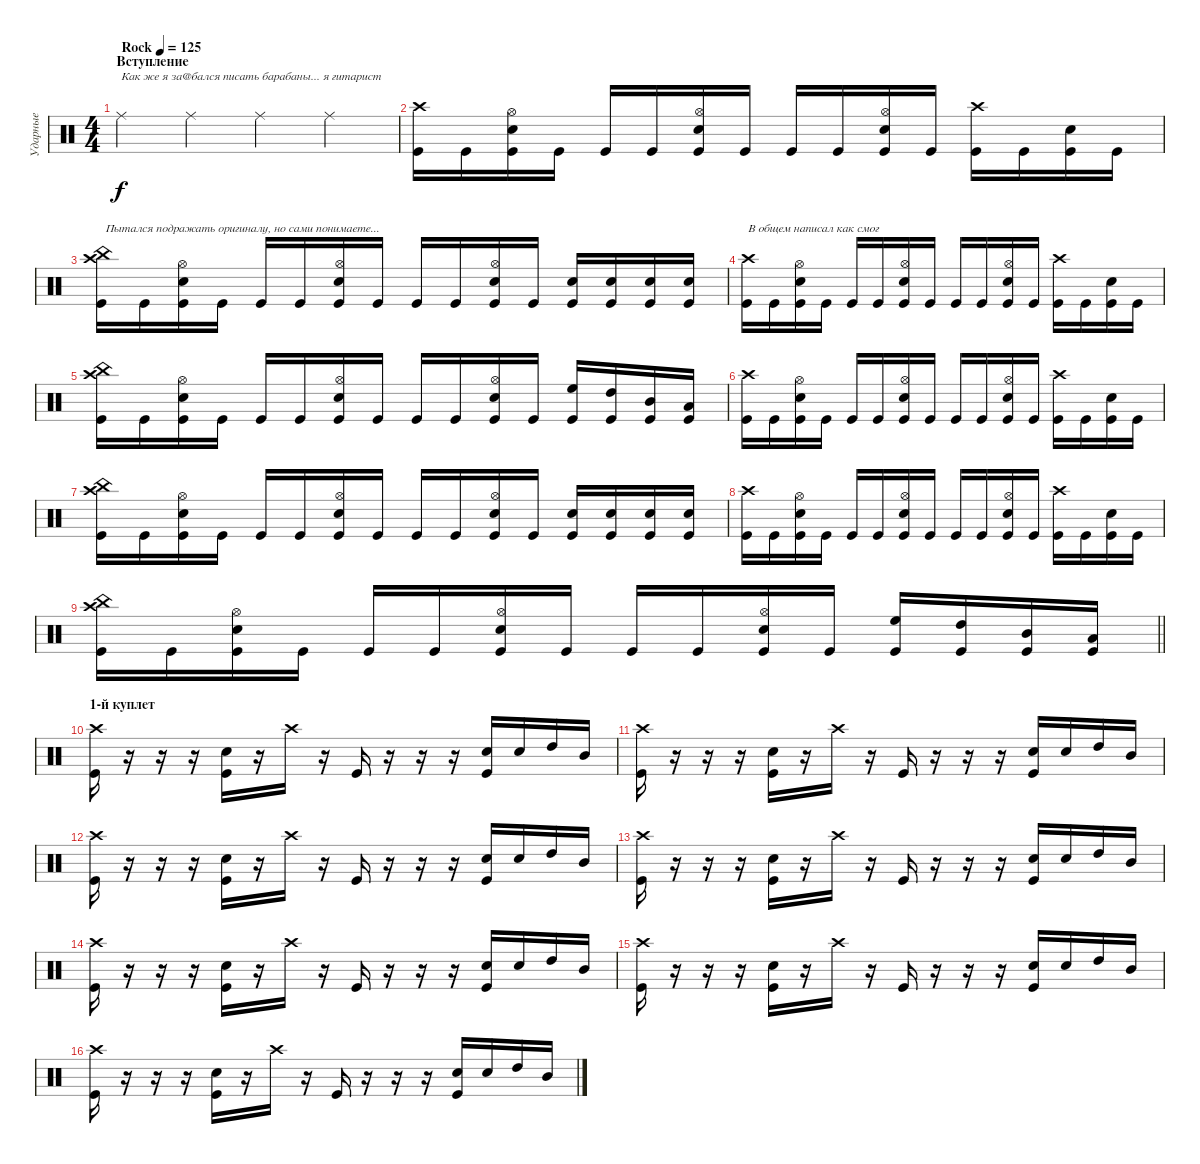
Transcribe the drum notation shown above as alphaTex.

\track ("Ударные" "Ударные") {instrument percussion}
\staff {score}
\articulation defaults
\ts (4 4)
\section ("" "Вступление")
\tempo (125 "Rock")
\clef neutral
\ks c "Ride (middle)".4{txt "Как же я за@бался писать барабаны... я гитарист" dy f} "Ride (middle)".4 "Ride (middle)".4 "Ride (middle)".4
|
("Crash high (hit)" "Kick (hit)").16 "Kick (hit)".16 ("Hi-Hat (open)" "Snare (hit) 2" "Kick (hit)").16 "Kick (hit)".16 "Kick (hit)".16 "Kick (hit)".16 ("Hi-Hat (open)" "Snare (hit) 2" "Kick (hit)").16 "Kick (hit)".16 "Kick (hit)".16 "Kick (hit)".16 ("Hi-Hat (open)" "Snare (hit) 2" "Kick (hit)").16 "Kick (hit)".16 ("Crash high (hit)" "Kick (hit)").16 "Kick (hit)".16 ("Snare (hit) 2" "Kick (hit)").16 "Kick (hit)".16 |
("Crash high (hit)" "China (hit)" "Kick (hit)").16{txt "Пытался подражать оригиналу, но сами понимаете..."} "Kick (hit)".16 ("Hi-Hat (open)" "Snare (hit) 2" "Kick (hit)").16 "Kick (hit)".16 "Kick (hit)".16 "Kick (hit)".16 ("Hi-Hat (open)" "Snare (hit) 2" "Kick (hit)").16 "Kick (hit)".16 "Kick (hit)".16 "Kick (hit)".16 ("Hi-Hat (open)" "Snare (hit) 2" "Kick (hit)").16 "Kick (hit)".16 ("Snare (hit) 2" "Kick (hit)").16 ("Snare (hit) 2" "Kick (hit)").16 ("Snare (hit) 2" "Kick (hit)").16 ("Snare (hit) 2" "Kick (hit)").16 |
("Crash high (hit)" "Kick (hit)").16{txt "В общем написал как смог"} "Kick (hit)".16 ("Hi-Hat (open)" "Snare (hit) 2" "Kick (hit)").16 "Kick (hit)".16 "Kick (hit)".16 "Kick (hit)".16 ("Hi-Hat (open)" "Snare (hit) 2" "Kick (hit)").16 "Kick (hit)".16 "Kick (hit)".16 "Kick (hit)".16 ("Hi-Hat (open)" "Snare (hit) 2" "Kick (hit)").16 "Kick (hit)".16 ("Crash high (hit)" "Kick (hit)").16 "Kick (hit)".16 ("Snare (hit) 2" "Kick (hit)").16 "Kick (hit)".16 |
("Crash high (hit)" "China (hit)" "Kick (hit)").16 "Kick (hit)".16 ("Hi-Hat (open)" "Snare (hit) 2" "Kick (hit)").16 "Kick (hit)".16 "Kick (hit)".16 "Kick (hit)".16 ("Hi-Hat (open)" "Snare (hit) 2" "Kick (hit)").16 "Kick (hit)".16 "Kick (hit)".16 "Kick (hit)".16 ("Hi-Hat (open)" "Snare (hit) 2" "Kick (hit)").16 "Kick (hit)".16 ("High Floor Tom (hit)" "Kick (hit)").16 ("High Tom (hit)" "Kick (hit)").16 ("Mid Tom (hit)" "Kick (hit)").16 ("Low Tom (hit)" "Kick (hit)").16 |
("Crash high (hit)" "Kick (hit)").16 "Kick (hit)".16 ("Hi-Hat (open)" "Snare (hit) 2" "Kick (hit)").16 "Kick (hit)".16 "Kick (hit)".16 "Kick (hit)".16 ("Hi-Hat (open)" "Snare (hit) 2" "Kick (hit)").16 "Kick (hit)".16 "Kick (hit)".16 "Kick (hit)".16 ("Hi-Hat (open)" "Snare (hit) 2" "Kick (hit)").16 "Kick (hit)".16 ("Crash high (hit)" "Kick (hit)").16 "Kick (hit)".16 ("Snare (hit) 2" "Kick (hit)").16 "Kick (hit)".16 |
("Crash high (hit)" "China (hit)" "Kick (hit)").16 "Kick (hit)".16 ("Hi-Hat (open)" "Snare (hit) 2" "Kick (hit)").16 "Kick (hit)".16 "Kick (hit)".16 "Kick (hit)".16 ("Hi-Hat (open)" "Snare (hit) 2" "Kick (hit)").16 "Kick (hit)".16 "Kick (hit)".16 "Kick (hit)".16 ("Hi-Hat (open)" "Snare (hit) 2" "Kick (hit)").16 "Kick (hit)".16 ("Snare (hit) 2" "Kick (hit)").16 ("Snare (hit) 2" "Kick (hit)").16 ("Snare (hit) 2" "Kick (hit)").16 ("Snare (hit) 2" "Kick (hit)").16 |
("Crash high (hit)" "Kick (hit)").16 "Kick (hit)".16 ("Hi-Hat (open)" "Snare (hit) 2" "Kick (hit)").16 "Kick (hit)".16 "Kick (hit)".16 "Kick (hit)".16 ("Hi-Hat (open)" "Snare (hit) 2" "Kick (hit)").16 "Kick (hit)".16 "Kick (hit)".16 "Kick (hit)".16 ("Hi-Hat (open)" "Snare (hit) 2" "Kick (hit)").16 "Kick (hit)".16 ("Crash high (hit)" "Kick (hit)").16 "Kick (hit)".16 ("Snare (hit) 2" "Kick (hit)").16 "Kick (hit)".16 |
\barLineRight lightlight
("Crash high (hit)" "China (hit)" "Kick (hit)").16 "Kick (hit)".16 ("Hi-Hat (open)" "Snare (hit) 2" "Kick (hit)").16 "Kick (hit)".16 "Kick (hit)".16 "Kick (hit)".16 ("Hi-Hat (open)" "Snare (hit) 2" "Kick (hit)").16 "Kick (hit)".16 "Kick (hit)".16 "Kick (hit)".16 ("Hi-Hat (open)" "Snare (hit) 2" "Kick (hit)").16 "Kick (hit)".16 ("High Floor Tom (hit)" "Kick (hit)").16 ("High Tom (hit)" "Kick (hit)").16 ("Mid Tom (hit)" "Kick (hit)").16 ("Low Tom (hit)" "Kick (hit)").16 |
\section ("" "1-й куплет")
("Crash high (hit)" "Kick (hit)").16 r.16 r.16 r.16 ("Snare (hit) 2" "Kick (hit)").16 r.16 "Crash high (hit)".16 r.16 "Kick (hit)".16 r.16 r.16 r.16 ("Snare (hit) 2" "Kick (hit)").16 "Snare (hit) 2".16 "High Tom (hit)".16 "Mid Tom (hit)".16 |
("Crash high (hit)" "Kick (hit)").16 r.16 r.16 r.16 ("Snare (hit) 2" "Kick (hit)").16 r.16 "Crash high (hit)".16 r.16 "Kick (hit)".16 r.16 r.16 r.16 ("Snare (hit) 2" "Kick (hit)").16 "Snare (hit) 2".16 "High Tom (hit)".16 "Mid Tom (hit)".16 |
("Crash high (hit)" "Kick (hit)").16 r.16 r.16 r.16 ("Snare (hit) 2" "Kick (hit)").16 r.16 "Crash high (hit)".16 r.16 "Kick (hit)".16 r.16 r.16 r.16 ("Snare (hit) 2" "Kick (hit)").16 "Snare (hit) 2".16 "High Tom (hit)".16 "Mid Tom (hit)".16 |
("Crash high (hit)" "Kick (hit)").16 r.16 r.16 r.16 ("Snare (hit) 2" "Kick (hit)").16 r.16 "Crash high (hit)".16 r.16 "Kick (hit)".16 r.16 r.16 r.16 ("Snare (hit) 2" "Kick (hit)").16 "Snare (hit) 2".16 "High Tom (hit)".16 "Mid Tom (hit)".16 |
("Crash high (hit)" "Kick (hit)").16 r.16 r.16 r.16 ("Snare (hit) 2" "Kick (hit)").16 r.16 "Crash high (hit)".16 r.16 "Kick (hit)".16 r.16 r.16 r.16 ("Snare (hit) 2" "Kick (hit)").16 "Snare (hit) 2".16 "High Tom (hit)".16 "Mid Tom (hit)".16 |
("Crash high (hit)" "Kick (hit)").16 r.16 r.16 r.16 ("Snare (hit) 2" "Kick (hit)").16 r.16 "Crash high (hit)".16 r.16 "Kick (hit)".16 r.16 r.16 r.16 ("Snare (hit) 2" "Kick (hit)").16 "Snare (hit) 2".16 "High Tom (hit)".16 "Mid Tom (hit)".16 |
("Crash high (hit)" "Kick (hit)").16 r.16 r.16 r.16 ("Snare (hit) 2" "Kick (hit)").16 r.16 "Crash high (hit)".16 r.16 "Kick (hit)".16 r.16 r.16 r.16 ("Snare (hit) 2" "Kick (hit)").16 "Snare (hit) 2".16 "High Tom (hit)".16 "Mid Tom (hit)".16
